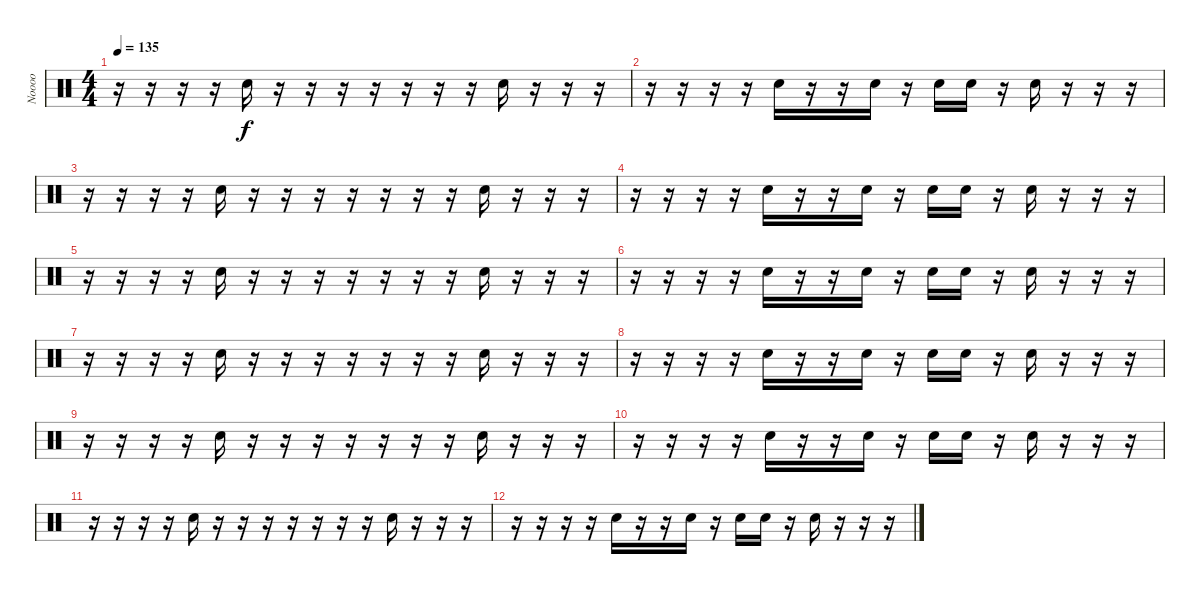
\track ("Noooo" "Noooo") {instrument percussion}
\staff {score}
\articulation defaults
\ts (4 4)
\tempo 135
\clef neutral
\ks c
r.16{dy f} r.16 r.16 r.16 "Hand Clap (hit)".16 r.16 r.16 r.16 r.16 r.16 r.16 r.16 "Hand Clap (hit)".16 r.16 r.16 r.16 |
r.16 r.16 r.16 r.16 "Hand Clap (hit)".16 r.16 r.16 "Hand Clap (hit)".16 r.16 "Hand Clap (hit)".16 "Hand Clap (hit)".16 r.16 "Hand Clap (hit)".16 r.16 r.16 r.16 |
r.16 r.16 r.16 r.16 "Hand Clap (hit)".16 r.16 r.16 r.16 r.16 r.16 r.16 r.16 "Hand Clap (hit)".16 r.16 r.16 r.16 |
r.16 r.16 r.16 r.16 "Hand Clap (hit)".16 r.16 r.16 "Hand Clap (hit)".16 r.16 "Hand Clap (hit)".16 "Hand Clap (hit)".16 r.16 "Hand Clap (hit)".16 r.16 r.16 r.16 |
r.16 r.16 r.16 r.16 "Hand Clap (hit)".16 r.16 r.16 r.16 r.16 r.16 r.16 r.16 "Hand Clap (hit)".16 r.16 r.16 r.16 |
r.16 r.16 r.16 r.16 "Hand Clap (hit)".16 r.16 r.16 "Hand Clap (hit)".16 r.16 "Hand Clap (hit)".16 "Hand Clap (hit)".16 r.16 "Hand Clap (hit)".16 r.16 r.16 r.16 |
r.16 r.16 r.16 r.16 "Hand Clap (hit)".16 r.16 r.16 r.16 r.16 r.16 r.16 r.16 "Hand Clap (hit)".16 r.16 r.16 r.16 |
r.16 r.16 r.16 r.16 "Hand Clap (hit)".16 r.16 r.16 "Hand Clap (hit)".16 r.16 "Hand Clap (hit)".16 "Hand Clap (hit)".16 r.16 "Hand Clap (hit)".16 r.16 r.16 r.16 |
r.16 r.16 r.16 r.16 "Hand Clap (hit)".16 r.16 r.16 r.16 r.16 r.16 r.16 r.16 "Hand Clap (hit)".16 r.16 r.16 r.16 |
r.16 r.16 r.16 r.16 "Hand Clap (hit)".16 r.16 r.16 "Hand Clap (hit)".16 r.16 "Hand Clap (hit)".16 "Hand Clap (hit)".16 r.16 "Hand Clap (hit)".16 r.16 r.16 r.16 |
r.16 r.16 r.16 r.16 "Hand Clap (hit)".16 r.16 r.16 r.16 r.16 r.16 r.16 r.16 "Hand Clap (hit)".16 r.16 r.16 r.16 |
r.16 r.16 r.16 r.16 "Hand Clap (hit)".16 r.16 r.16 "Hand Clap (hit)".16 r.16 "Hand Clap (hit)".16 "Hand Clap (hit)".16 r.16 "Hand Clap (hit)".16 r.16 r.16 r.16
